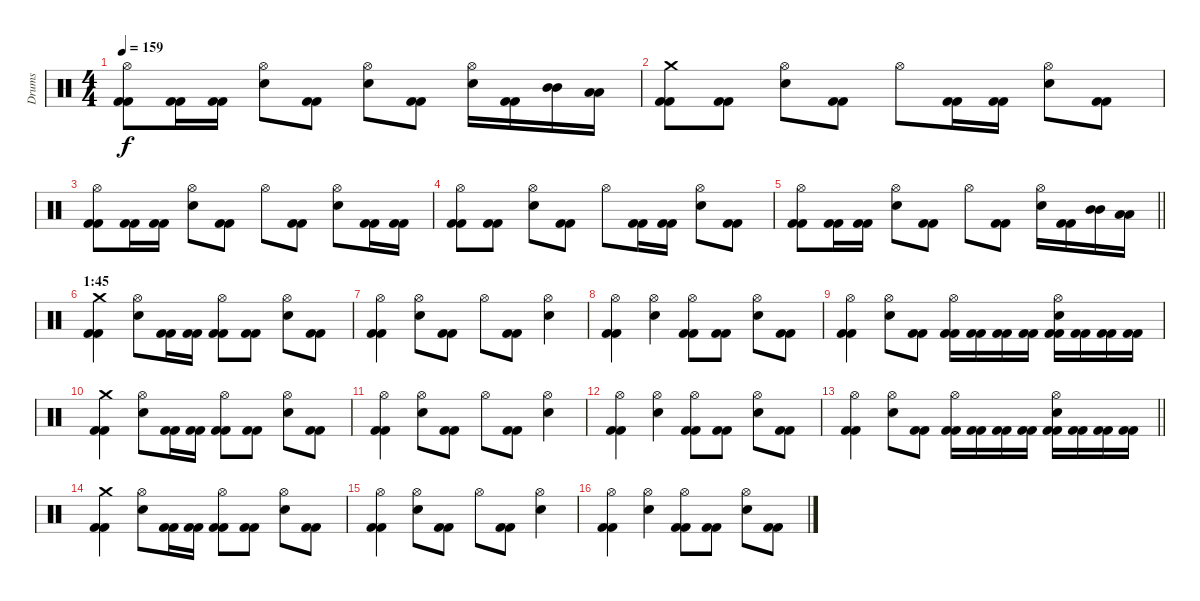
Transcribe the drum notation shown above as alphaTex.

\track ("Drums" "Drums") {instrument percussion}
\staff {score}
\articulation defaults
\ts (4 4)
\tempo 159
\clef neutral
\ks c
("Hi-Hat (open)" "Kick (hit) 2" "Kick (hit) 2").8{dy f} ("Kick (hit) 2" "Kick (hit) 2").16 ("Kick (hit) 2" "Kick (hit) 2").16 ("Hi-Hat (open)" "Electric Snare (hit)").8 ("Kick (hit) 2" "Kick (hit) 2").8 ("Hi-Hat (open)" "Electric Snare (hit)").8 ("Kick (hit) 2" "Kick (hit) 2").8 ("Hi-Hat (open)" "Electric Snare (hit)").16 ("Kick (hit) 2" "Kick (hit) 2").16 ("Mid Tom (hit)" "Mid Tom (hit)").16 ("Low Tom (hit)" "Low Tom (hit)").16 |
("Crash medium (hit)" "Kick (hit) 2" "Kick (hit) 2").8 ("Kick (hit) 2" "Kick (hit) 2").8 ("Hi-Hat (open)" "Electric Snare (hit)").8 ("Kick (hit) 2" "Kick (hit) 2").8 "Hi-Hat (open)".8 ("Kick (hit) 2" "Kick (hit) 2").16 ("Kick (hit) 2" "Kick (hit) 2").16 ("Hi-Hat (open)" "Electric Snare (hit)").8 ("Kick (hit) 2" "Kick (hit) 2").8 |
("Hi-Hat (open)" "Kick (hit) 2" "Kick (hit) 2").8 ("Kick (hit) 2" "Kick (hit) 2").16 ("Kick (hit) 2" "Kick (hit) 2").16 ("Hi-Hat (open)" "Electric Snare (hit)").8 ("Kick (hit) 2" "Kick (hit) 2").8 "Hi-Hat (open)".8 ("Kick (hit) 2" "Kick (hit) 2").8 ("Hi-Hat (open)" "Electric Snare (hit)").8 ("Kick (hit) 2" "Kick (hit) 2").16 ("Kick (hit) 2" "Kick (hit) 2").16 |
("Hi-Hat (open)" "Kick (hit) 2" "Kick (hit) 2").8 ("Kick (hit) 2" "Kick (hit) 2").8 ("Hi-Hat (open)" "Electric Snare (hit)").8 ("Kick (hit) 2" "Kick (hit) 2").8 "Hi-Hat (open)".8 ("Kick (hit) 2" "Kick (hit) 2").16 ("Kick (hit) 2" "Kick (hit) 2").16 ("Hi-Hat (open)" "Electric Snare (hit)").8 ("Kick (hit) 2" "Kick (hit) 2").8 |
\barLineRight lightlight
("Hi-Hat (open)" "Kick (hit) 2" "Kick (hit) 2").8 ("Kick (hit) 2" "Kick (hit) 2").16 ("Kick (hit) 2" "Kick (hit) 2").16 ("Hi-Hat (open)" "Electric Snare (hit)").8 ("Kick (hit) 2" "Kick (hit) 2").8 "Hi-Hat (open)".8 ("Kick (hit) 2" "Kick (hit) 2").8 ("Hi-Hat (open)" "Electric Snare (hit)").16 ("Kick (hit) 2" "Kick (hit) 2").16 ("Mid Tom (hit)" "Mid Tom (hit)").16 ("Low Tom (hit)" "Low Tom (hit)").16 |
\section ("" "1:45")
("Crash medium (hit)" "Kick (hit) 2" "Kick (hit) 2").4 ("Hi-Hat (open)" "Electric Snare (hit)").8 ("Kick (hit) 2" "Kick (hit) 2").16 ("Kick (hit) 2" "Kick (hit) 2").16 ("Hi-Hat (open)" "Kick (hit) 2" "Kick (hit) 2").8 ("Kick (hit) 2" "Kick (hit) 2").8 ("Hi-Hat (open)" "Electric Snare (hit)").8 ("Kick (hit) 2" "Kick (hit) 2").8 |
("Hi-Hat (open)" "Kick (hit) 2" "Kick (hit) 2").4 ("Hi-Hat (open)" "Electric Snare (hit)").8 ("Kick (hit) 2" "Kick (hit) 2").8 "Hi-Hat (open)".8 ("Kick (hit) 2" "Kick (hit) 2").8 ("Hi-Hat (open)" "Electric Snare (hit)").4 |
("Hi-Hat (open)" "Kick (hit) 2" "Kick (hit) 2").4 ("Hi-Hat (open)" "Electric Snare (hit)").4 ("Hi-Hat (open)" "Kick (hit) 2" "Kick (hit) 2").8 ("Kick (hit) 2" "Kick (hit) 2").8 ("Hi-Hat (open)" "Electric Snare (hit)").8 ("Kick (hit) 2" "Kick (hit) 2").8 |
("Hi-Hat (open)" "Kick (hit) 2" "Kick (hit) 2").4 ("Hi-Hat (open)" "Electric Snare (hit)").8 ("Kick (hit) 2" "Kick (hit) 2").8 ("Hi-Hat (open)" "Kick (hit) 2" "Kick (hit) 2").16 ("Kick (hit) 2" "Kick (hit) 2").16 ("Kick (hit) 2" "Kick (hit) 2").16 ("Kick (hit) 2" "Kick (hit) 2").16 ("Hi-Hat (open)" "Electric Snare (hit)" "Kick (hit) 2" "Kick (hit) 2").16 ("Kick (hit) 2" "Kick (hit) 2").16 ("Kick (hit) 2" "Kick (hit) 2").16 ("Kick (hit) 2" "Kick (hit) 2").16 |
("Crash medium (hit)" "Kick (hit) 2" "Kick (hit) 2").4 ("Hi-Hat (open)" "Electric Snare (hit)").8 ("Kick (hit) 2" "Kick (hit) 2").16 ("Kick (hit) 2" "Kick (hit) 2").16 ("Hi-Hat (open)" "Kick (hit) 2" "Kick (hit) 2").8 ("Kick (hit) 2" "Kick (hit) 2").8 ("Hi-Hat (open)" "Electric Snare (hit)").8 ("Kick (hit) 2" "Kick (hit) 2").8 |
("Hi-Hat (open)" "Kick (hit) 2" "Kick (hit) 2").4 ("Hi-Hat (open)" "Electric Snare (hit)").8 ("Kick (hit) 2" "Kick (hit) 2").8 "Hi-Hat (open)".8 ("Kick (hit) 2" "Kick (hit) 2").8 ("Hi-Hat (open)" "Electric Snare (hit)").4 |
("Hi-Hat (open)" "Kick (hit) 2" "Kick (hit) 2").4 ("Hi-Hat (open)" "Electric Snare (hit)").4 ("Hi-Hat (open)" "Kick (hit) 2" "Kick (hit) 2").8 ("Kick (hit) 2" "Kick (hit) 2").8 ("Hi-Hat (open)" "Electric Snare (hit)").8 ("Kick (hit) 2" "Kick (hit) 2").8 |
\barLineRight lightlight
("Hi-Hat (open)" "Kick (hit) 2" "Kick (hit) 2").4 ("Hi-Hat (open)" "Electric Snare (hit)").8 ("Kick (hit) 2" "Kick (hit) 2").8 ("Hi-Hat (open)" "Kick (hit) 2" "Kick (hit) 2").16 ("Kick (hit) 2" "Kick (hit) 2").16 ("Kick (hit) 2" "Kick (hit) 2").16 ("Kick (hit) 2" "Kick (hit) 2").16 ("Hi-Hat (open)" "Electric Snare (hit)" "Kick (hit) 2" "Kick (hit) 2").16 ("Kick (hit) 2" "Kick (hit) 2").16 ("Kick (hit) 2" "Kick (hit) 2").16 ("Kick (hit) 2" "Kick (hit) 2").16 |
("Crash medium (hit)" "Kick (hit) 2" "Kick (hit) 2").4 ("Hi-Hat (open)" "Electric Snare (hit)").8 ("Kick (hit) 2" "Kick (hit) 2").16 ("Kick (hit) 2" "Kick (hit) 2").16 ("Hi-Hat (open)" "Kick (hit) 2" "Kick (hit) 2").8 ("Kick (hit) 2" "Kick (hit) 2").8 ("Hi-Hat (open)" "Electric Snare (hit)").8 ("Kick (hit) 2" "Kick (hit) 2").8 |
("Hi-Hat (open)" "Kick (hit) 2" "Kick (hit) 2").4 ("Hi-Hat (open)" "Electric Snare (hit)").8 ("Kick (hit) 2" "Kick (hit) 2").8 "Hi-Hat (open)".8 ("Kick (hit) 2" "Kick (hit) 2").8 ("Hi-Hat (open)" "Electric Snare (hit)").4 |
("Hi-Hat (open)" "Kick (hit) 2" "Kick (hit) 2").4 ("Hi-Hat (open)" "Electric Snare (hit)").4 ("Hi-Hat (open)" "Kick (hit) 2" "Kick (hit) 2").8 ("Kick (hit) 2" "Kick (hit) 2").8 ("Hi-Hat (open)" "Electric Snare (hit)").8 ("Kick (hit) 2" "Kick (hit) 2").8
